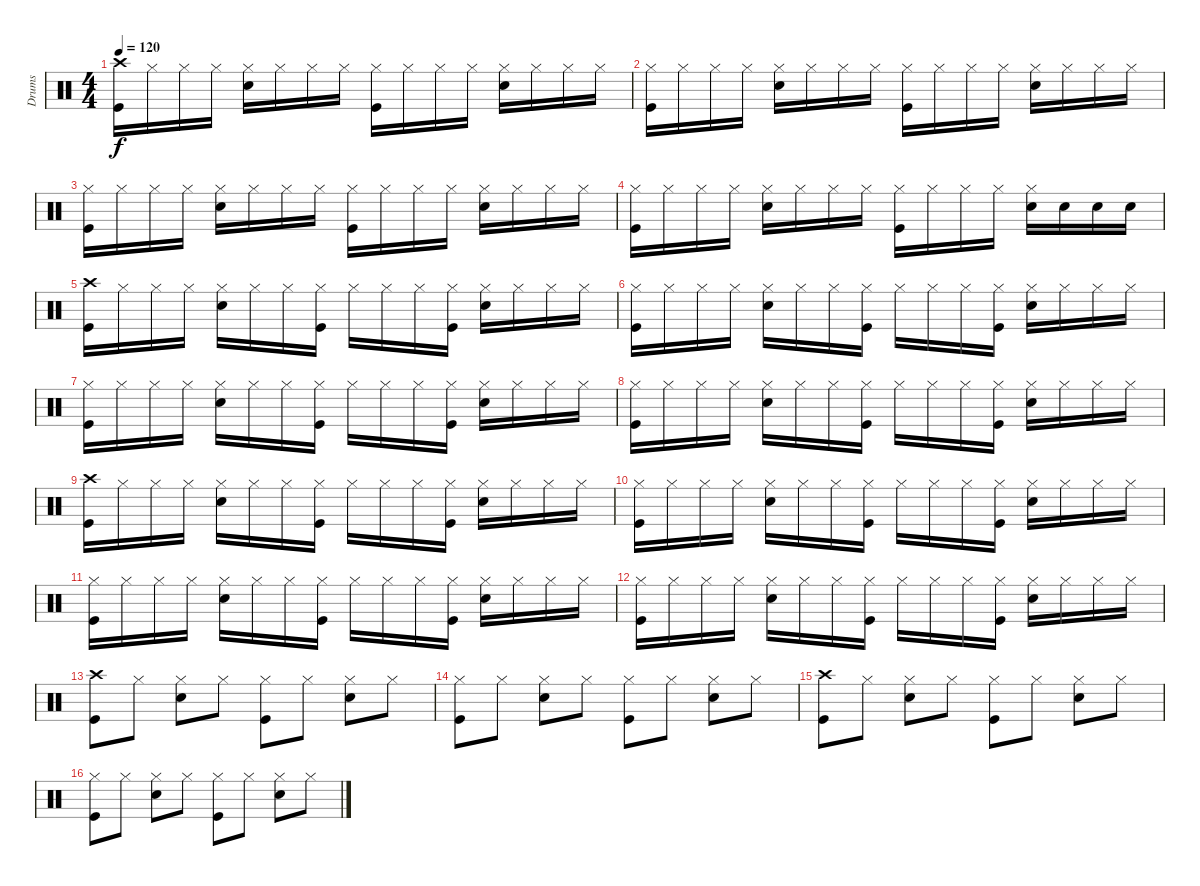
\track ("Drums" "Drums") {instrument percussion}
\staff {score}
\articulation defaults
\ts (4 4)
\tempo 120
\clef neutral
\ks c
("Crash high (hit)" "Kick (hit)").16{dy f} "Hi-Hat (closed)".16 "Hi-Hat (closed)".16 "Hi-Hat (closed)".16 ("Hi-Hat (closed)" "Electric Snare (hit)").16 "Hi-Hat (closed)".16 "Hi-Hat (closed)".16 "Hi-Hat (closed)".16 ("Hi-Hat (closed)" "Kick (hit)").16 "Hi-Hat (closed)".16 "Hi-Hat (closed)".16 "Hi-Hat (closed)".16 ("Hi-Hat (closed)" "Electric Snare (hit)").16 "Hi-Hat (closed)".16 "Hi-Hat (closed)".16 "Hi-Hat (closed)".16 |
("Hi-Hat (closed)" "Kick (hit)").16 "Hi-Hat (closed)".16 "Hi-Hat (closed)".16 "Hi-Hat (closed)".16 ("Hi-Hat (closed)" "Electric Snare (hit)").16 "Hi-Hat (closed)".16 "Hi-Hat (closed)".16 "Hi-Hat (closed)".16 ("Hi-Hat (closed)" "Kick (hit)").16 "Hi-Hat (closed)".16 "Hi-Hat (closed)".16 "Hi-Hat (closed)".16 ("Hi-Hat (closed)" "Electric Snare (hit)").16 "Hi-Hat (closed)".16 "Hi-Hat (closed)".16 "Hi-Hat (closed)".16 |
("Hi-Hat (closed)" "Kick (hit)").16 "Hi-Hat (closed)".16 "Hi-Hat (closed)".16 "Hi-Hat (closed)".16 ("Hi-Hat (closed)" "Electric Snare (hit)").16 "Hi-Hat (closed)".16 "Hi-Hat (closed)".16 "Hi-Hat (closed)".16 ("Hi-Hat (closed)" "Kick (hit)").16 "Hi-Hat (closed)".16 "Hi-Hat (closed)".16 "Hi-Hat (closed)".16 ("Hi-Hat (closed)" "Electric Snare (hit)").16 "Hi-Hat (closed)".16 "Hi-Hat (closed)".16 "Hi-Hat (closed)".16 |
("Hi-Hat (closed)" "Kick (hit)").16 "Hi-Hat (closed)".16 "Hi-Hat (closed)".16 "Hi-Hat (closed)".16 ("Hi-Hat (closed)" "Electric Snare (hit)").16 "Hi-Hat (closed)".16 "Hi-Hat (closed)".16 "Hi-Hat (closed)".16 ("Hi-Hat (closed)" "Kick (hit)").16 "Hi-Hat (closed)".16 "Hi-Hat (closed)".16 "Hi-Hat (closed)".16 ("Hi-Hat (closed)" "Electric Snare (hit)").16 "Electric Snare (hit)".16 "Electric Snare (hit)".16 "Electric Snare (hit)".16 |
("Crash high (hit)" "Kick (hit)").16 "Hi-Hat (closed)".16 "Hi-Hat (closed)".16 "Hi-Hat (closed)".16 ("Hi-Hat (closed)" "Electric Snare (hit)").16 "Hi-Hat (closed)".16 "Hi-Hat (closed)".16 ("Hi-Hat (closed)" "Kick (hit)").16 "Hi-Hat (closed)".16 "Hi-Hat (closed)".16 "Hi-Hat (closed)".16 ("Hi-Hat (closed)" "Kick (hit)").16 ("Hi-Hat (closed)" "Electric Snare (hit)").16 "Hi-Hat (closed)".16 "Hi-Hat (closed)".16 "Hi-Hat (closed)".16 |
("Hi-Hat (closed)" "Kick (hit)").16 "Hi-Hat (closed)".16 "Hi-Hat (closed)".16 "Hi-Hat (closed)".16 ("Hi-Hat (closed)" "Electric Snare (hit)").16 "Hi-Hat (closed)".16 "Hi-Hat (closed)".16 ("Hi-Hat (closed)" "Kick (hit)").16 "Hi-Hat (closed)".16 "Hi-Hat (closed)".16 "Hi-Hat (closed)".16 ("Hi-Hat (closed)" "Kick (hit)").16 ("Hi-Hat (closed)" "Electric Snare (hit)").16 "Hi-Hat (closed)".16 "Hi-Hat (closed)".16 "Hi-Hat (closed)".16 |
("Hi-Hat (closed)" "Kick (hit)").16 "Hi-Hat (closed)".16 "Hi-Hat (closed)".16 "Hi-Hat (closed)".16 ("Hi-Hat (closed)" "Electric Snare (hit)").16 "Hi-Hat (closed)".16 "Hi-Hat (closed)".16 ("Hi-Hat (closed)" "Kick (hit)").16 "Hi-Hat (closed)".16 "Hi-Hat (closed)".16 "Hi-Hat (closed)".16 ("Hi-Hat (closed)" "Kick (hit)").16 ("Hi-Hat (closed)" "Electric Snare (hit)").16 "Hi-Hat (closed)".16 "Hi-Hat (closed)".16 "Hi-Hat (closed)".16 |
("Hi-Hat (closed)" "Kick (hit)").16 "Hi-Hat (closed)".16 "Hi-Hat (closed)".16 "Hi-Hat (closed)".16 ("Hi-Hat (closed)" "Electric Snare (hit)").16 "Hi-Hat (closed)".16 "Hi-Hat (closed)".16 ("Hi-Hat (closed)" "Kick (hit)").16 "Hi-Hat (closed)".16 "Hi-Hat (closed)".16 "Hi-Hat (closed)".16 ("Hi-Hat (closed)" "Kick (hit)").16 ("Hi-Hat (closed)" "Electric Snare (hit)").16 "Hi-Hat (closed)".16 "Hi-Hat (closed)".16 "Hi-Hat (closed)".16 |
("Crash high (hit)" "Kick (hit)").16 "Hi-Hat (closed)".16 "Hi-Hat (closed)".16 "Hi-Hat (closed)".16 ("Hi-Hat (closed)" "Electric Snare (hit)").16 "Hi-Hat (closed)".16 "Hi-Hat (closed)".16 ("Hi-Hat (closed)" "Kick (hit)").16 "Hi-Hat (closed)".16 "Hi-Hat (closed)".16 "Hi-Hat (closed)".16 ("Hi-Hat (closed)" "Kick (hit)").16 ("Hi-Hat (closed)" "Electric Snare (hit)").16 "Hi-Hat (closed)".16 "Hi-Hat (closed)".16 "Hi-Hat (closed)".16 |
("Hi-Hat (closed)" "Kick (hit)").16 "Hi-Hat (closed)".16 "Hi-Hat (closed)".16 "Hi-Hat (closed)".16 ("Hi-Hat (closed)" "Electric Snare (hit)").16 "Hi-Hat (closed)".16 "Hi-Hat (closed)".16 ("Hi-Hat (closed)" "Kick (hit)").16 "Hi-Hat (closed)".16 "Hi-Hat (closed)".16 "Hi-Hat (closed)".16 ("Hi-Hat (closed)" "Kick (hit)").16 ("Hi-Hat (closed)" "Electric Snare (hit)").16 "Hi-Hat (closed)".16 "Hi-Hat (closed)".16 "Hi-Hat (closed)".16 |
("Hi-Hat (closed)" "Kick (hit)").16 "Hi-Hat (closed)".16 "Hi-Hat (closed)".16 "Hi-Hat (closed)".16 ("Hi-Hat (closed)" "Electric Snare (hit)").16 "Hi-Hat (closed)".16 "Hi-Hat (closed)".16 ("Hi-Hat (closed)" "Kick (hit)").16 "Hi-Hat (closed)".16 "Hi-Hat (closed)".16 "Hi-Hat (closed)".16 ("Hi-Hat (closed)" "Kick (hit)").16 ("Hi-Hat (closed)" "Electric Snare (hit)").16 "Hi-Hat (closed)".16 "Hi-Hat (closed)".16 "Hi-Hat (closed)".16 |
("Hi-Hat (closed)" "Kick (hit)").16 "Hi-Hat (closed)".16 "Hi-Hat (closed)".16 "Hi-Hat (closed)".16 ("Hi-Hat (closed)" "Electric Snare (hit)").16 "Hi-Hat (closed)".16 "Hi-Hat (closed)".16 ("Hi-Hat (closed)" "Kick (hit)").16 "Hi-Hat (closed)".16 "Hi-Hat (closed)".16 "Hi-Hat (closed)".16 ("Hi-Hat (closed)" "Kick (hit)").16 ("Hi-Hat (closed)" "Electric Snare (hit)").16 "Hi-Hat (closed)".16 "Hi-Hat (closed)".16 "Hi-Hat (closed)".16 |
("Crash high (hit)" "Kick (hit)").8 "Hi-Hat (closed)".8 ("Hi-Hat (closed)" "Electric Snare (hit)").8 "Hi-Hat (closed)".8 ("Hi-Hat (closed)" "Kick (hit)").8 "Hi-Hat (closed)".8 ("Hi-Hat (closed)" "Electric Snare (hit)").8 "Hi-Hat (closed)".8 |
("Hi-Hat (closed)" "Kick (hit)").8 "Hi-Hat (closed)".8 ("Hi-Hat (closed)" "Electric Snare (hit)").8 "Hi-Hat (closed)".8 ("Hi-Hat (closed)" "Kick (hit)").8 "Hi-Hat (closed)".8 ("Hi-Hat (closed)" "Electric Snare (hit)").8 "Hi-Hat (closed)".8 |
("Crash high (hit)" "Kick (hit)").8 "Hi-Hat (closed)".8 ("Hi-Hat (closed)" "Electric Snare (hit)").8 "Hi-Hat (closed)".8 ("Hi-Hat (closed)" "Kick (hit)").8 "Hi-Hat (closed)".8 ("Hi-Hat (closed)" "Electric Snare (hit)").8 "Hi-Hat (closed)".8 |
("Hi-Hat (closed)" "Kick (hit)").8 "Hi-Hat (closed)".8 ("Hi-Hat (closed)" "Electric Snare (hit)").8 "Hi-Hat (closed)".8 ("Hi-Hat (closed)" "Kick (hit)").8 "Hi-Hat (closed)".8 ("Hi-Hat (closed)" "Electric Snare (hit)").8 "Hi-Hat (closed)".8
